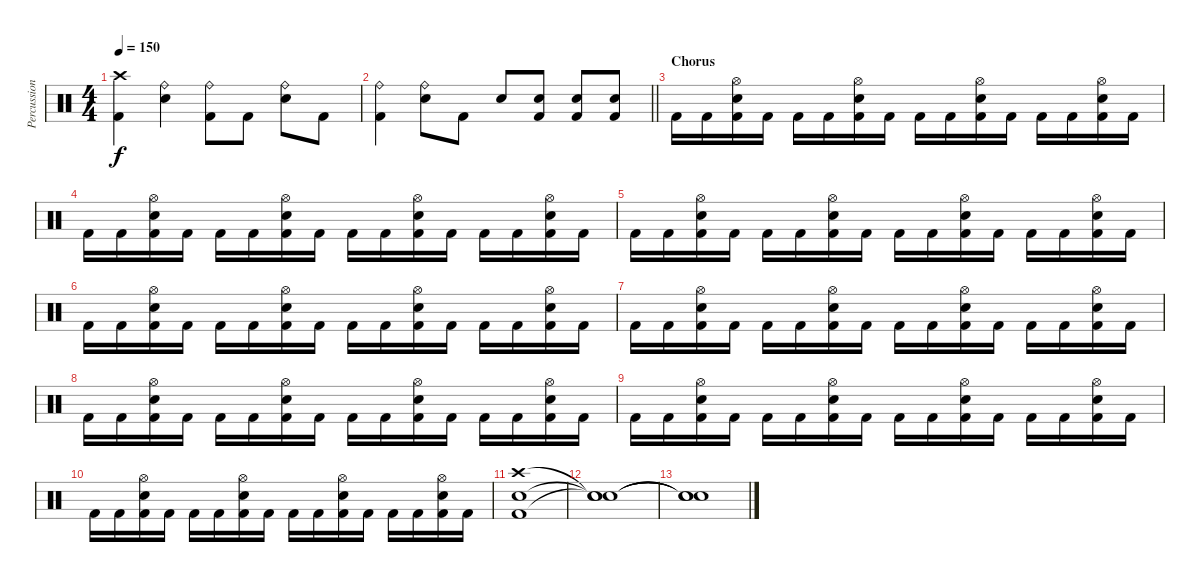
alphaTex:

\track ("Percussion" "Percussion") {instrument percussion}
\staff {score}
\articulation defaults
\ts (4 4)
\tempo 150
\clef neutral
\ks c
("Crash high (hit)" "Kick (hit) 2").4{dy f} ("Ride (bell)" "Electric Snare (hit)").4 ("Ride (bell)" "Kick (hit) 2").8 "Kick (hit) 2".8 ("Ride (bell)" "Electric Snare (hit)").8 "Kick (hit) 2".8 |
\barLineRight lightlight
("Ride (bell)" "Kick (hit) 2").4 ("Ride (bell)" "Snare (hit) 2").8 "Kick (hit) 2".8 "Snare (hit) 2".8 ("Snare (hit) 2" "Kick (hit) 2").8 ("Snare (hit) 2" "Kick (hit) 2").8 ("Snare (hit) 2" "Kick (hit) 2").8 |
\section ("" "Chorus")
"Kick (hit) 2".16 "Kick (hit) 2".16 ("Hi-Hat (open)" "Snare (hit) 2" "Kick (hit) 2").16 "Kick (hit) 2".16 "Kick (hit) 2".16 "Kick (hit) 2".16 ("Hi-Hat (open)" "Snare (hit) 2" "Kick (hit) 2").16 "Kick (hit) 2".16 "Kick (hit) 2".16 "Kick (hit) 2".16 ("Hi-Hat (open)" "Snare (hit) 2" "Kick (hit) 2").16 "Kick (hit) 2".16 "Kick (hit) 2".16 "Kick (hit) 2".16 ("Hi-Hat (open)" "Snare (hit) 2" "Kick (hit) 2").16 "Kick (hit) 2".16 |
"Kick (hit) 2".16 "Kick (hit) 2".16 ("Hi-Hat (open)" "Snare (hit) 2" "Kick (hit) 2").16 "Kick (hit) 2".16 "Kick (hit) 2".16 "Kick (hit) 2".16 ("Hi-Hat (open)" "Snare (hit) 2" "Kick (hit) 2").16 "Kick (hit) 2".16 "Kick (hit) 2".16 "Kick (hit) 2".16 ("Hi-Hat (open)" "Snare (hit) 2" "Kick (hit) 2").16 "Kick (hit) 2".16 "Kick (hit) 2".16 "Kick (hit) 2".16 ("Hi-Hat (open)" "Snare (hit) 2" "Kick (hit) 2").16 "Kick (hit) 2".16 |
"Kick (hit) 2".16 "Kick (hit) 2".16 ("Hi-Hat (open)" "Snare (hit) 2" "Kick (hit) 2").16 "Kick (hit) 2".16 "Kick (hit) 2".16 "Kick (hit) 2".16 ("Hi-Hat (open)" "Snare (hit) 2" "Kick (hit) 2").16 "Kick (hit) 2".16 "Kick (hit) 2".16 "Kick (hit) 2".16 ("Hi-Hat (open)" "Snare (hit) 2" "Kick (hit) 2").16 "Kick (hit) 2".16 "Kick (hit) 2".16 "Kick (hit) 2".16 ("Hi-Hat (open)" "Snare (hit) 2" "Kick (hit) 2").16 "Kick (hit) 2".16 |
"Kick (hit) 2".16 "Kick (hit) 2".16 ("Hi-Hat (open)" "Snare (hit) 2" "Kick (hit) 2").16 "Kick (hit) 2".16 "Kick (hit) 2".16 "Kick (hit) 2".16 ("Hi-Hat (open)" "Snare (hit) 2" "Kick (hit) 2").16 "Kick (hit) 2".16 "Kick (hit) 2".16 "Kick (hit) 2".16 ("Hi-Hat (open)" "Snare (hit) 2" "Kick (hit) 2").16 "Kick (hit) 2".16 "Kick (hit) 2".16 "Kick (hit) 2".16 ("Hi-Hat (open)" "Snare (hit) 2" "Kick (hit) 2").16 "Kick (hit) 2".16 |
"Kick (hit) 2".16 "Kick (hit) 2".16 ("Hi-Hat (open)" "Snare (hit) 2" "Kick (hit) 2").16 "Kick (hit) 2".16 "Kick (hit) 2".16 "Kick (hit) 2".16 ("Hi-Hat (open)" "Snare (hit) 2" "Kick (hit) 2").16 "Kick (hit) 2".16 "Kick (hit) 2".16 "Kick (hit) 2".16 ("Hi-Hat (open)" "Snare (hit) 2" "Kick (hit) 2").16 "Kick (hit) 2".16 "Kick (hit) 2".16 "Kick (hit) 2".16 ("Hi-Hat (open)" "Snare (hit) 2" "Kick (hit) 2").16 "Kick (hit) 2".16 |
"Kick (hit) 2".16 "Kick (hit) 2".16 ("Hi-Hat (open)" "Snare (hit) 2" "Kick (hit) 2").16 "Kick (hit) 2".16 "Kick (hit) 2".16 "Kick (hit) 2".16 ("Hi-Hat (open)" "Snare (hit) 2" "Kick (hit) 2").16 "Kick (hit) 2".16 "Kick (hit) 2".16 "Kick (hit) 2".16 ("Hi-Hat (open)" "Snare (hit) 2" "Kick (hit) 2").16 "Kick (hit) 2".16 "Kick (hit) 2".16 "Kick (hit) 2".16 ("Hi-Hat (open)" "Snare (hit) 2" "Kick (hit) 2").16 "Kick (hit) 2".16 |
"Kick (hit) 2".16 "Kick (hit) 2".16 ("Hi-Hat (open)" "Snare (hit) 2" "Kick (hit) 2").16 "Kick (hit) 2".16 "Kick (hit) 2".16 "Kick (hit) 2".16 ("Hi-Hat (open)" "Snare (hit) 2" "Kick (hit) 2").16 "Kick (hit) 2".16 "Kick (hit) 2".16 "Kick (hit) 2".16 ("Hi-Hat (open)" "Snare (hit) 2" "Kick (hit) 2").16 "Kick (hit) 2".16 "Kick (hit) 2".16 "Kick (hit) 2".16 ("Hi-Hat (open)" "Snare (hit) 2" "Kick (hit) 2").16 "Kick (hit) 2".16 |
"Kick (hit) 2".16 "Kick (hit) 2".16 ("Hi-Hat (open)" "Snare (hit) 2" "Kick (hit) 2").16 "Kick (hit) 2".16 "Kick (hit) 2".16 "Kick (hit) 2".16 ("Hi-Hat (open)" "Snare (hit) 2" "Kick (hit) 2").16 "Kick (hit) 2".16 "Kick (hit) 2".16 "Kick (hit) 2".16 ("Hi-Hat (open)" "Snare (hit) 2" "Kick (hit) 2").16 "Kick (hit) 2".16 "Kick (hit) 2".16 "Kick (hit) 2".16 ("Hi-Hat (open)" "Snare (hit) 2" "Kick (hit) 2").16 "Kick (hit) 2".16 |
("Crash high (hit)" "Snare (hit) 2" "Kick (hit) 2").1 |
("Snare (hit)"{t} "Snare (hit)"{t} "Snare (hit)"{t}).1 |
("Snare (hit)"{t} "Snare (hit)"{t} "Snare (hit)"{t}).1
